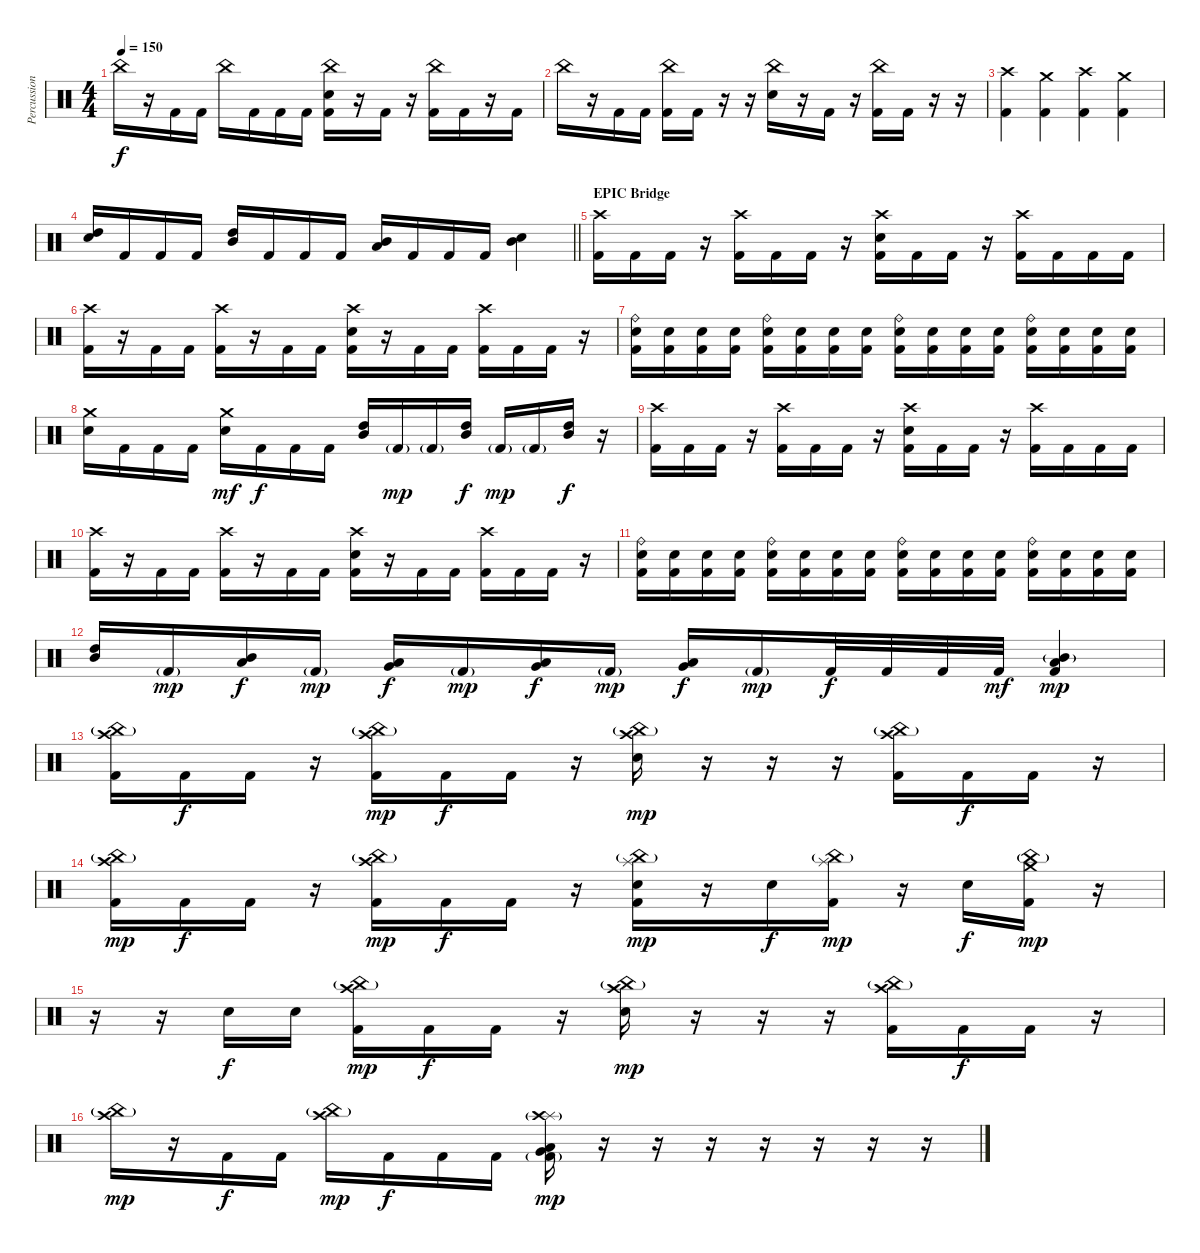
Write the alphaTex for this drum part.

\track ("Percussion" "Percussion") {instrument percussion}
\staff {score}
\articulation defaults
\ts (4 4)
\tempo 150
\clef neutral
\ks c "China (hit)".16{dy f}
r.16 "Kick (hit) 2".16 "Kick (hit) 2".16 "China (hit)".16 "Kick (hit) 2".16 "Kick (hit) 2".16 "Kick (hit) 2".16 ("China (hit)" "Snare (hit) 2" "Kick (hit) 2").16 r.16 "Kick (hit) 2".16 r.16 ("China (hit)" "Kick (hit) 2").16 "Kick (hit) 2".16 r.16 "Kick (hit) 2".16 |
"China (hit)".16 r.16 "Kick (hit) 2".16 "Kick (hit) 2".16 ("China (hit)" "Kick (hit) 2").16 "Kick (hit) 2".16 r.16 r.16 ("China (hit)" "Snare (hit) 2").16 r.16 "Kick (hit) 2".16 r.16 ("China (hit)" "Kick (hit) 2").16 "Kick (hit) 2".16 r.16 r.16 |
("Crash high (hit)" "Kick (hit) 2").4 ("Crash medium (hit)" "Kick (hit) 2").4 ("Crash high (hit)" "Kick (hit) 2").4 ("Crash medium (hit)" "Kick (hit) 2").4 |
\barLineRight lightlight
("High Tom (hit)" "Snare (hit) 2").16 "Kick (hit) 2".16 "Kick (hit) 2".16 "Kick (hit) 2".16 ("High Tom (hit)" "Mid Tom (hit)").16 "Kick (hit) 2".16 "Kick (hit) 2".16 "Kick (hit) 2".16 ("Mid Tom (hit)" "Low Tom (hit)").16 "Kick (hit) 2".16 "Kick (hit) 2".16 "Kick (hit) 2".16 ("Mid Tom (hit)" "Snare (hit) 2").4 |
\section ("" "EPIC Bridge")
("Crash high (hit)" "Kick (hit) 2").16 "Kick (hit) 2".16 "Kick (hit) 2".16 r.16 ("Crash high (hit)" "Kick (hit) 2").16 "Kick (hit) 2".16 "Kick (hit) 2".16 r.16 ("Crash high (hit)" "Snare (hit) 2" "Kick (hit) 2").16 "Kick (hit) 2".16 "Kick (hit) 2".16 r.16 ("Crash high (hit)" "Kick (hit) 2").16 "Kick (hit) 2".16 "Kick (hit) 2".16 "Kick (hit) 2".16 |
("Crash high (hit)" "Kick (hit) 2").16 r.16 "Kick (hit) 2".16 "Kick (hit) 2".16 ("Crash high (hit)" "Kick (hit) 2").16 r.16 "Kick (hit) 2".16 "Kick (hit) 2".16 ("Crash high (hit)" "Snare (hit) 2" "Kick (hit) 2").16 r.16 "Kick (hit) 2".16 "Kick (hit) 2".16 ("Crash high (hit)" "Kick (hit) 2").16 "Kick (hit) 2".16 "Kick (hit) 2".16 r.16 |
("Ride (bell)" "Snare (hit) 2" "Kick (hit) 2").16 ("Snare (hit) 2" "Kick (hit) 2").16 ("Snare (hit) 2" "Kick (hit) 2").16 ("Snare (hit) 2" "Kick (hit) 2").16 ("Ride (bell)" "Snare (hit) 2" "Kick (hit) 2").16 ("Snare (hit) 2" "Kick (hit) 2").16 ("Snare (hit) 2" "Kick (hit) 2").16 ("Snare (hit) 2" "Kick (hit) 2").16 ("Ride (bell)" "Snare (hit) 2" "Kick (hit) 2").16 ("Snare (hit) 2" "Kick (hit) 2").16 ("Snare (hit) 2" "Kick (hit) 2").16 ("Snare (hit) 2" "Kick (hit) 2").16 ("Ride (bell)" "Snare (hit) 2" "Kick (hit) 2").16 ("Snare (hit) 2" "Kick (hit) 2").16 ("Snare (hit) 2" "Kick (hit) 2").16 ("Snare (hit) 2" "Kick (hit) 2").16 |
("Crash medium (hit)" "Snare (hit) 2").16 "Kick (hit) 2".16 "Kick (hit) 2".16 "Kick (hit) 2".16 ("Crash medium (hit)" "Snare (hit) 2").16{dy mf} "Kick (hit) 2".16{dy f} "Kick (hit) 2".16 "Kick (hit) 2".16 ("Mid Tom (hit)" "High Tom (hit)").16 "Kick (hit) 2"{g}.16{dy mp} "Kick (hit) 2"{g}.16 ("Mid Tom (hit)" "High Tom (hit)").16{dy f} "Kick (hit) 2"{g}.16{dy mp} "Kick (hit) 2"{g}.16 ("Mid Tom (hit)" "High Tom (hit)").16{dy f} r.16 |
("Crash high (hit)" "Kick (hit) 2").16 "Kick (hit) 2".16 "Kick (hit) 2".16 r.16 ("Crash high (hit)" "Kick (hit) 2").16 "Kick (hit) 2".16 "Kick (hit) 2".16 r.16 ("Crash high (hit)" "Snare (hit) 2" "Kick (hit) 2").16 "Kick (hit) 2".16 "Kick (hit) 2".16 r.16 ("Crash high (hit)" "Kick (hit) 2").16 "Kick (hit) 2".16 "Kick (hit) 2".16 "Kick (hit) 2".16 |
("Crash high (hit)" "Kick (hit) 2").16 r.16 "Kick (hit) 2".16 "Kick (hit) 2".16 ("Crash high (hit)" "Kick (hit) 2").16 r.16 "Kick (hit) 2".16 "Kick (hit) 2".16 ("Crash high (hit)" "Snare (hit) 2" "Kick (hit) 2").16 r.16 "Kick (hit) 2".16 "Kick (hit) 2".16 ("Crash high (hit)" "Kick (hit) 2").16 "Kick (hit) 2".16 "Kick (hit) 2".16 r.16 |
("Ride (bell)" "Snare (hit) 2" "Kick (hit) 2").16 ("Snare (hit) 2" "Kick (hit) 2").16 ("Snare (hit) 2" "Kick (hit) 2").16 ("Snare (hit) 2" "Kick (hit) 2").16 ("Ride (bell)" "Snare (hit) 2" "Kick (hit) 2").16 ("Snare (hit) 2" "Kick (hit) 2").16 ("Snare (hit) 2" "Kick (hit) 2").16 ("Snare (hit) 2" "Kick (hit) 2").16 ("Ride (bell)" "Snare (hit) 2" "Kick (hit) 2").16 ("Snare (hit) 2" "Kick (hit) 2").16 ("Snare (hit) 2" "Kick (hit) 2").16 ("Snare (hit) 2" "Kick (hit) 2").16 ("Ride (bell)" "Snare (hit) 2" "Kick (hit) 2").16 ("Snare (hit) 2" "Kick (hit) 2").16 ("Snare (hit) 2" "Kick (hit) 2").16 ("Snare (hit) 2" "Kick (hit) 2").16 |
("Mid Tom (hit)" "High Tom (hit)").16 "Kick (hit) 2"{g}.16{dy mp} ("Low Tom (hit)" "Mid Tom (hit)").16{dy f} "Kick (hit) 2"{g}.16{dy mp} ("Very Low Tom (hit)" "Low Tom (hit)").16{dy f} "Kick (hit) 2"{g}.16{dy mp} ("Low Floor Tom (hit)" "Very Low Tom (hit)").16{dy f} "Kick (hit) 2"{g}.16{dy mp} ("Low Tom (hit)" "Very Low Tom (hit)").16{dy f} "Kick (hit) 2"{g}.16{dy mp} "Kick (hit) 2".32{dy f} "Kick (hit) 2".32 "Kick (hit) 2".32 "Kick (hit) 2".32{dy mf} ("Low Tom (hit)" "Mid Tom (hit)"{g} "Kick (hit) 2").4{dy mp} |
("Crash high (hit)" "China (hit)"{g} "Kick (hit) 2").16 "Kick (hit) 2".16{dy f} "Kick (hit) 2".16 r.16 ("Crash high (hit)" "China (hit)"{g} "Kick (hit) 2").16{dy mp} "Kick (hit) 2".16{dy f} "Kick (hit) 2".16 r.16 ("Crash high (hit)" "China (hit)"{g} "Snare (hit) 2").16{dy mp} r.16 r.16 r.16 ("Crash high (hit)" "China (hit)"{g} "Kick (hit) 2").16 "Kick (hit) 2".16{dy f} "Kick (hit) 2".16 r.16 |
("Crash high (hit)" "China (hit)"{g} "Kick (hit) 2").16{dy mp} "Kick (hit) 2".16{dy f} "Kick (hit) 2".16 r.16 ("Crash high (hit)" "China (hit)"{g} "Kick (hit) 2").16{dy mp} "Kick (hit) 2".16{dy f} "Kick (hit) 2".16 r.16 ("Splash (hit)" "China (hit)"{g} "Snare (hit) 2" "Kick (hit) 2").16{dy mp} r.16 "Snare (hit) 2".16{dy f} ("Splash (hit)" "China (hit)"{g} "Kick (hit) 2").16{dy mp} r.16 "Snare (hit) 2".16{dy f} ("Crash medium (hit)" "China (hit)"{g} "Kick (hit) 2").16{dy mp} r.16 |
r.16 r.16 "Snare (hit) 2".16{dy f} "Snare (hit) 2".16 ("Crash high (hit)" "China (hit)"{g} "Kick (hit) 2").16{dy mp} "Kick (hit) 2".16{dy f} "Kick (hit) 2".16 r.16 ("Crash high (hit)" "China (hit)"{g} "Snare (hit) 2").16{dy mp} r.16 r.16 r.16 ("Crash high (hit)" "China (hit)"{g} "Kick (hit) 2").16 "Kick (hit) 2".16{dy f} "Kick (hit) 2".16 r.16 |
("Crash high (hit)" "China (hit)"{g}).16{dy mp} r.16 "Kick (hit) 2".16{dy f} "Kick (hit) 2".16 ("Crash high (hit)" "China (hit)"{g}).16{dy mp} "Kick (hit) 2".16{dy f} "Kick (hit) 2".16 "Kick (hit) 2".16 ("Splash (hit)" "Crash high (hit)"{g} "Low Floor Tom (hit)" "Very Low Tom (hit)" "Kick (hit) 2"{g}).16{dy mp} r.16 r.16 r.16 r.16 r.16 r.16 r.16
